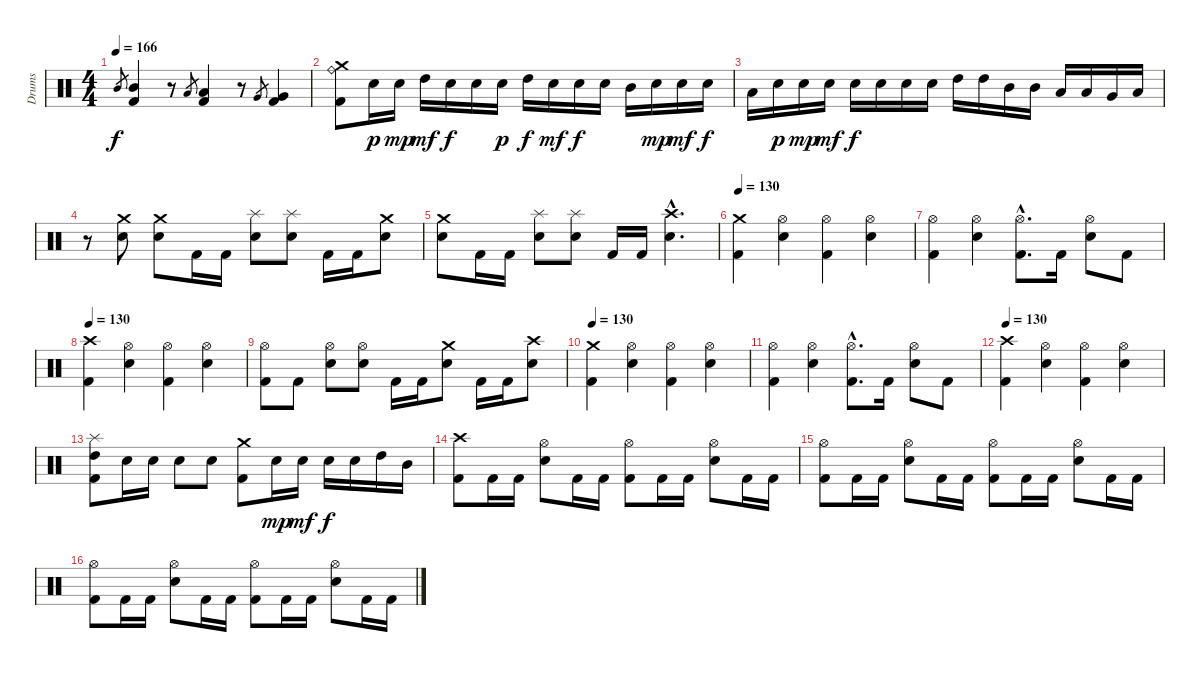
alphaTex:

\track ("Drums" "Drums") {instrument percussion}
\staff {score}
\articulation defaults
\ts (4 4)
\tempo 166
\clef neutral
\ks c "Mid Tom (hit)".8{gr dy f}
("Kick (hit) 2" "Mid Tom (hit)").4 r.8 "Low Tom (hit)".8{gr} ("Kick (hit) 2" "Low Tom (hit)").4 r.8 "Very Low Tom (hit)".8{gr} ("Kick (hit) 2" "Very Low Tom (hit)").4 |
("Kick (hit) 2" "Crash medium (hit)" "Ride (bell)").8 "Electric Snare (hit)".16{dy p} "Electric Snare (hit)".16{dy mp} "High Tom (hit)".16{dy mf} "Electric Snare (hit)".16{dy f} "Electric Snare (hit)".16 "Electric Snare (hit)".16{dy p} "High Tom (hit)".16{dy f} "Electric Snare (hit)".16{dy mf} "Electric Snare (hit)".16{dy f} "Electric Snare (hit)".16 "Mid Tom (hit)".16 "Electric Snare (hit)".16{dy mp} "Electric Snare (hit)".16{dy mf} "Electric Snare (hit)".16{dy f} |
"Low Tom (hit)".16 "Electric Snare (hit)".16{dy p} "Electric Snare (hit)".16{dy mp} "Electric Snare (hit)".16{dy mf} "Electric Snare (hit)".16{dy f} "Electric Snare (hit)".16 "Electric Snare (hit)".16 "Electric Snare (hit)".16 "High Tom (hit)".16 "High Tom (hit)".16 "Mid Tom (hit)".16 "Mid Tom (hit)".16 "Low Tom (hit)".16 "Low Tom (hit)".16 "Very Low Tom (hit)".16 "Low Floor Tom (hit)".16 |
r.8 ("Electric Snare (hit)" "Crash medium (hit)").8 ("Electric Snare (hit)" "Crash medium (hit)").8 "Kick (hit) 2".16 "Kick (hit) 2".16 ("Electric Snare (hit)" "Splash (hit)").8 ("Electric Snare (hit)" "Splash (hit)").8 "Kick (hit) 2".16 "Kick (hit) 2".16 ("Electric Snare (hit)" "Crash medium (hit)").8 |
("Electric Snare (hit)" "Crash medium (hit)").8 "Kick (hit) 2".16 "Kick (hit) 2".16 ("Electric Snare (hit)" "Splash (hit)").8 ("Electric Snare (hit)" "Splash (hit)").8 "Kick (hit) 2".16 "Kick (hit) 2".16 ("Electric Snare (hit)"{hac} "Crash high (hit)"{hac}).4{d} |
\section ("" "")
\tempo 130
("Kick (hit) 2" "Crash medium (hit)").4 ("Electric Snare (hit)" "Hi-Hat (open)").4 ("Kick (hit) 2" "Hi-Hat (open)").4 ("Electric Snare (hit)" "Hi-Hat (open)").4 |
("Kick (hit) 2" "Hi-Hat (open)").4 ("Electric Snare (hit)" "Hi-Hat (open)").4 ("Kick (hit) 2"{hac} "Hi-Hat (open)"{hac}).8{d} "Kick (hit) 2".16 ("Electric Snare (hit)" "Hi-Hat (open)").8 "Kick (hit) 2".8 |
\tempo 130
("Kick (hit) 2" "Crash high (hit)").4 ("Electric Snare (hit)" "Hi-Hat (open)").4 ("Kick (hit) 2" "Hi-Hat (open)").4 ("Electric Snare (hit)" "Hi-Hat (open)").4 |
("Kick (hit) 2" "Hi-Hat (open)").8 "Kick (hit) 2".8 ("Electric Snare (hit)" "Hi-Hat (open)").8 ("Electric Snare (hit)" "Hi-Hat (open)").8 "Kick (hit) 2".16 "Kick (hit) 2".16 ("Electric Snare (hit)" "Crash medium (hit)").8 "Kick (hit) 2".16 "Kick (hit) 2".16 ("Electric Snare (hit)" "Crash high (hit)").8 |
\tempo 130
("Kick (hit) 2" "Crash medium (hit)").4 ("Electric Snare (hit)" "Hi-Hat (open)").4 ("Kick (hit) 2" "Hi-Hat (open)").4 ("Electric Snare (hit)" "Hi-Hat (open)").4 |
("Kick (hit) 2" "Hi-Hat (open)").4 ("Electric Snare (hit)" "Hi-Hat (open)").4 ("Kick (hit) 2"{hac} "Hi-Hat (open)"{hac}).8{d} "Kick (hit) 2".16 ("Electric Snare (hit)" "Hi-Hat (open)").8 "Kick (hit) 2".8 |
\tempo 130
("Kick (hit) 2" "Crash high (hit)").4 ("Electric Snare (hit)" "Hi-Hat (open)").4 ("Kick (hit) 2" "Hi-Hat (open)").4 ("Electric Snare (hit)" "Hi-Hat (open)").4 |
("Kick (hit) 2" "High Tom (hit)" "Splash (hit)").8 "Electric Snare (hit)".16 "Electric Snare (hit)".16 "Electric Snare (hit)".8 "Electric Snare (hit)".8 ("Kick (hit) 2" "Crash medium (hit)").8 "Electric Snare (hit)".16{dy mp} "Electric Snare (hit)".16{dy mf} "Electric Snare (hit)".16{dy f} "Electric Snare (hit)".16 "High Tom (hit)".16 "Mid Tom (hit)".16 |
\section ("" "")
("Kick (hit) 2" "Crash high (hit)").8 "Kick (hit) 2".16 "Kick (hit) 2".16 ("Electric Snare (hit)" "Hi-Hat (open)").8 "Kick (hit) 2".16 "Kick (hit) 2".16 ("Kick (hit) 2" "Hi-Hat (open)").8 "Kick (hit) 2".16 "Kick (hit) 2".16 ("Electric Snare (hit)" "Hi-Hat (open)").8 "Kick (hit) 2".16 "Kick (hit) 2".16 |
("Kick (hit) 2" "Hi-Hat (open)").8 "Kick (hit) 2".16 "Kick (hit) 2".16 ("Electric Snare (hit)" "Hi-Hat (open)").8 "Kick (hit) 2".16 "Kick (hit) 2".16 ("Kick (hit) 2" "Hi-Hat (open)").8 "Kick (hit) 2".16 "Kick (hit) 2".16 ("Electric Snare (hit)" "Hi-Hat (open)").8 "Kick (hit) 2".16 "Kick (hit) 2".16 |
("Kick (hit) 2" "Hi-Hat (open)").8 "Kick (hit) 2".16 "Kick (hit) 2".16 ("Electric Snare (hit)" "Hi-Hat (open)").8 "Kick (hit) 2".16 "Kick (hit) 2".16 ("Kick (hit) 2" "Hi-Hat (open)").8 "Kick (hit) 2".16 "Kick (hit) 2".16 ("Electric Snare (hit)" "Hi-Hat (open)").8 "Kick (hit) 2".16 "Kick (hit) 2".16
